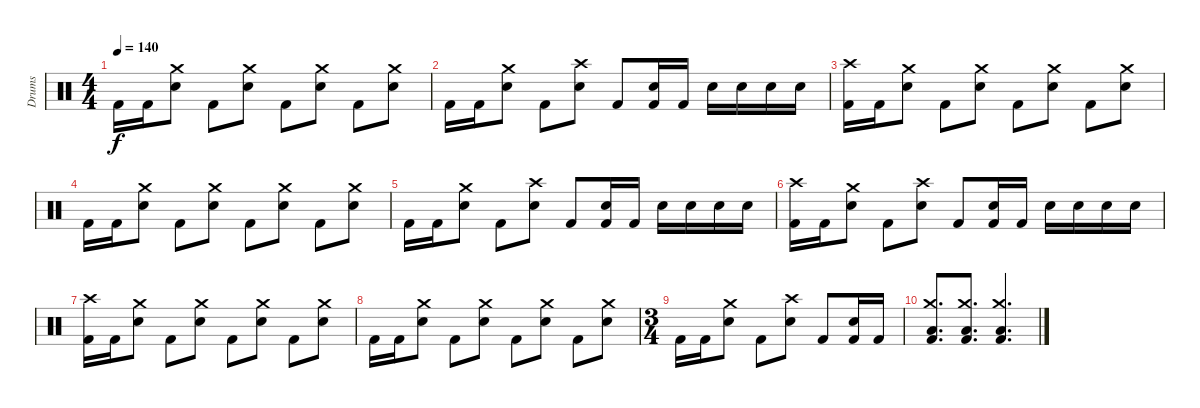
\track ("Drums" "Drums") {instrument percussion}
\staff {score}
\articulation defaults
\ts (4 4)
\tempo 140
\clef neutral
\ks c "Kick (hit) 2".16{dy f} "Kick (hit) 2".16
("Snare (hit) 2" "Crash medium (hit)").8 "Kick (hit) 2".8 ("Snare (hit) 2" "Crash medium (hit)").8 "Kick (hit) 2".8 ("Snare (hit) 2" "Crash medium (hit)").8 "Kick (hit) 2".8 ("Snare (hit) 2" "Crash medium (hit)").8 |
"Kick (hit) 2".16 "Kick (hit) 2".16 ("Snare (hit) 2" "Crash medium (hit)").8 "Kick (hit) 2".8 ("Snare (hit) 2" "Crash high (hit)").8 "Kick (hit) 2".8 ("Snare (hit) 2" "Kick (hit) 2").16 "Kick (hit) 2".16 "Snare (hit) 2".16 "Snare (hit) 2".16 "Snare (hit) 2".16 "Snare (hit) 2".16 |
("Kick (hit) 2" "Crash high (hit)").16 "Kick (hit) 2".16 ("Snare (hit) 2" "Crash medium (hit)").8 "Kick (hit) 2".8 ("Snare (hit) 2" "Crash medium (hit)").8 "Kick (hit) 2".8 ("Snare (hit) 2" "Crash medium (hit)").8 "Kick (hit) 2".8 ("Snare (hit) 2" "Crash medium (hit)").8 |
"Kick (hit) 2".16 "Kick (hit) 2".16 ("Snare (hit) 2" "Crash medium (hit)").8 "Kick (hit) 2".8 ("Snare (hit) 2" "Crash medium (hit)").8 "Kick (hit) 2".8 ("Snare (hit) 2" "Crash medium (hit)").8 "Kick (hit) 2".8 ("Snare (hit) 2" "Crash medium (hit)").8 |
"Kick (hit) 2".16 "Kick (hit) 2".16 ("Snare (hit) 2" "Crash medium (hit)").8 "Kick (hit) 2".8 ("Snare (hit) 2" "Crash high (hit)").8 "Kick (hit) 2".8 ("Snare (hit) 2" "Kick (hit) 2").16 "Kick (hit) 2".16 "Snare (hit) 2".16 "Snare (hit) 2".16 "Snare (hit) 2".16 "Snare (hit) 2".16 |
("Kick (hit) 2" "Crash high (hit)").16 "Kick (hit) 2".16 ("Snare (hit) 2" "Crash medium (hit)").8 "Kick (hit) 2".8 ("Snare (hit) 2" "Crash high (hit)").8 "Kick (hit) 2".8 ("Snare (hit) 2" "Kick (hit) 2").16 "Kick (hit) 2".16 "Snare (hit) 2".16 "Snare (hit) 2".16 "Snare (hit) 2".16 "Snare (hit) 2".16 |
("Kick (hit) 2" "Crash high (hit)").16 "Kick (hit) 2".16 ("Snare (hit) 2" "Crash medium (hit)").8 "Kick (hit) 2".8 ("Snare (hit) 2" "Crash medium (hit)").8 "Kick (hit) 2".8 ("Snare (hit) 2" "Crash medium (hit)").8 "Kick (hit) 2".8 ("Snare (hit) 2" "Crash medium (hit)").8 |
"Kick (hit) 2".16 "Kick (hit) 2".16 ("Snare (hit) 2" "Crash medium (hit)").8 "Kick (hit) 2".8 ("Snare (hit) 2" "Crash medium (hit)").8 "Kick (hit) 2".8 ("Snare (hit) 2" "Crash medium (hit)").8 "Kick (hit) 2".8 ("Snare (hit) 2" "Crash medium (hit)").8 |
\ts (3 4)
"Kick (hit) 2".16 "Kick (hit) 2".16 ("Snare (hit) 2" "Crash medium (hit)").8 "Kick (hit) 2".8 ("Snare (hit) 2" "Crash high (hit)").8 "Kick (hit) 2".8 ("Snare (hit) 2" "Kick (hit) 2").16 "Kick (hit) 2".16 |
("Low Floor Tom (hit)" "Kick (hit) 2" "Crash medium (hit)").8{d} ("Low Floor Tom (hit)" "Kick (hit) 2" "Crash medium (hit)").8{d} ("Low Floor Tom (hit)" "Kick (hit) 2" "Crash medium (hit)").4{d}
